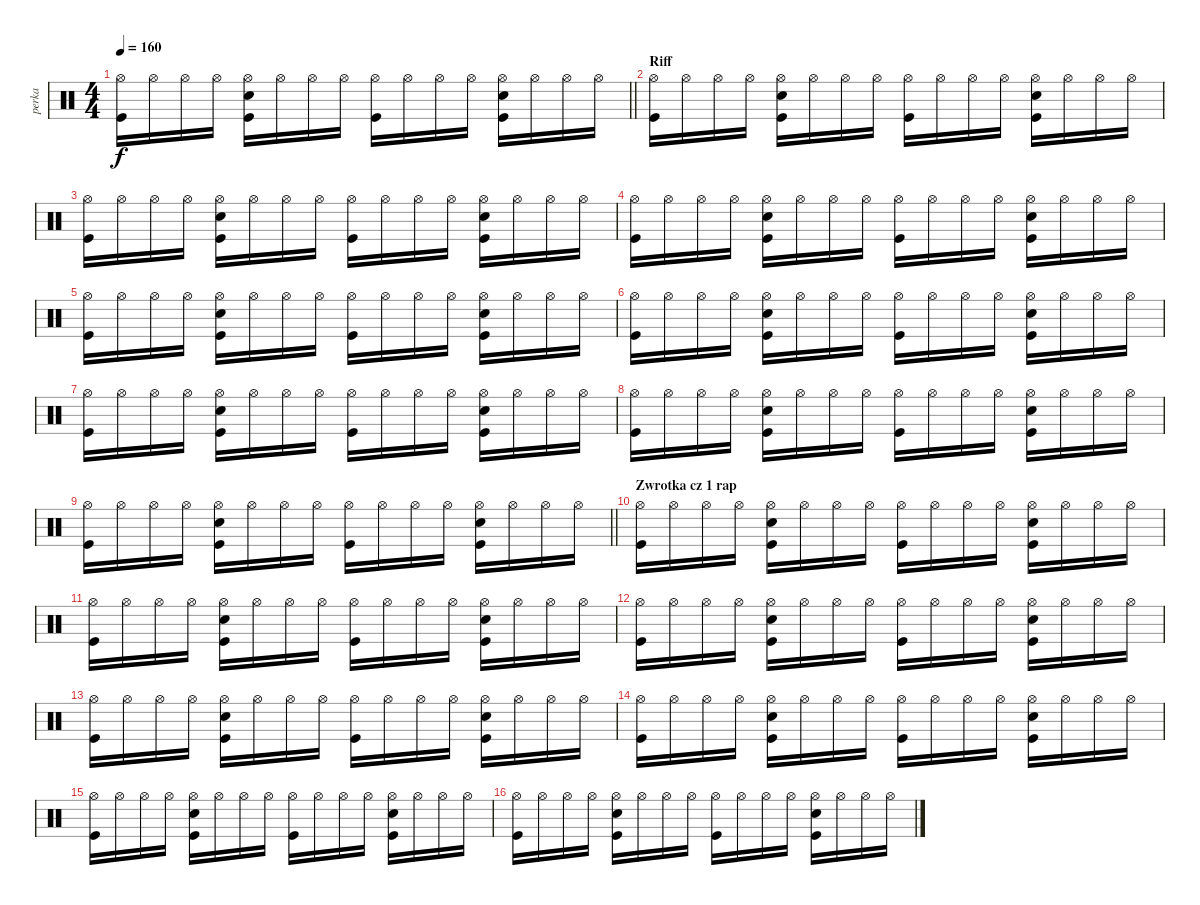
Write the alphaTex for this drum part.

\track ("perka" "perka") {instrument percussion}
\staff {score}
\articulation defaults
\ts (4 4)
\tempo 160
\clef neutral
\barLineRight lightlight
\ks c
("Hi-Hat (open)" "Kick (hit)").16{dy f} "Hi-Hat (open)".16 "Hi-Hat (open)".16 "Hi-Hat (open)".16 ("Hi-Hat (open)" "Snare (hit) 2" "Kick (hit)").16 "Hi-Hat (open)".16 "Hi-Hat (open)".16 "Hi-Hat (open)".16 ("Hi-Hat (open)" "Kick (hit)").16 "Hi-Hat (open)".16 "Hi-Hat (open)".16 "Hi-Hat (open)".16 ("Hi-Hat (open)" "Snare (hit) 2" "Kick (hit)").16 "Hi-Hat (open)".16 "Hi-Hat (open)".16 "Hi-Hat (open)".16 |
\section ("" "Riff")
("Hi-Hat (open)" "Kick (hit)").16 "Hi-Hat (open)".16 "Hi-Hat (open)".16 "Hi-Hat (open)".16 ("Hi-Hat (open)" "Snare (hit) 2" "Kick (hit)").16 "Hi-Hat (open)".16 "Hi-Hat (open)".16 "Hi-Hat (open)".16 ("Hi-Hat (open)" "Kick (hit)").16 "Hi-Hat (open)".16 "Hi-Hat (open)".16 "Hi-Hat (open)".16 ("Hi-Hat (open)" "Snare (hit) 2" "Kick (hit)").16 "Hi-Hat (open)".16 "Hi-Hat (open)".16 "Hi-Hat (open)".16 |
("Hi-Hat (open)" "Kick (hit)").16 "Hi-Hat (open)".16 "Hi-Hat (open)".16 "Hi-Hat (open)".16 ("Hi-Hat (open)" "Snare (hit) 2" "Kick (hit)").16 "Hi-Hat (open)".16 "Hi-Hat (open)".16 "Hi-Hat (open)".16 ("Hi-Hat (open)" "Kick (hit)").16 "Hi-Hat (open)".16 "Hi-Hat (open)".16 "Hi-Hat (open)".16 ("Hi-Hat (open)" "Snare (hit) 2" "Kick (hit)").16 "Hi-Hat (open)".16 "Hi-Hat (open)".16 "Hi-Hat (open)".16 |
("Hi-Hat (open)" "Kick (hit)").16 "Hi-Hat (open)".16 "Hi-Hat (open)".16 "Hi-Hat (open)".16 ("Hi-Hat (open)" "Snare (hit) 2" "Kick (hit)").16 "Hi-Hat (open)".16 "Hi-Hat (open)".16 "Hi-Hat (open)".16 ("Hi-Hat (open)" "Kick (hit)").16 "Hi-Hat (open)".16 "Hi-Hat (open)".16 "Hi-Hat (open)".16 ("Hi-Hat (open)" "Snare (hit) 2" "Kick (hit)").16 "Hi-Hat (open)".16 "Hi-Hat (open)".16 "Hi-Hat (open)".16 |
("Hi-Hat (open)" "Kick (hit)").16 "Hi-Hat (open)".16 "Hi-Hat (open)".16 "Hi-Hat (open)".16 ("Hi-Hat (open)" "Snare (hit) 2" "Kick (hit)").16 "Hi-Hat (open)".16 "Hi-Hat (open)".16 "Hi-Hat (open)".16 ("Hi-Hat (open)" "Kick (hit)").16 "Hi-Hat (open)".16 "Hi-Hat (open)".16 "Hi-Hat (open)".16 ("Hi-Hat (open)" "Snare (hit) 2" "Kick (hit)").16 "Hi-Hat (open)".16 "Hi-Hat (open)".16 "Hi-Hat (open)".16 |
("Hi-Hat (open)" "Kick (hit)").16 "Hi-Hat (open)".16 "Hi-Hat (open)".16 "Hi-Hat (open)".16 ("Hi-Hat (open)" "Snare (hit) 2" "Kick (hit)").16 "Hi-Hat (open)".16 "Hi-Hat (open)".16 "Hi-Hat (open)".16 ("Hi-Hat (open)" "Kick (hit)").16 "Hi-Hat (open)".16 "Hi-Hat (open)".16 "Hi-Hat (open)".16 ("Hi-Hat (open)" "Snare (hit) 2" "Kick (hit)").16 "Hi-Hat (open)".16 "Hi-Hat (open)".16 "Hi-Hat (open)".16 |
("Hi-Hat (open)" "Kick (hit)").16 "Hi-Hat (open)".16 "Hi-Hat (open)".16 "Hi-Hat (open)".16 ("Hi-Hat (open)" "Snare (hit) 2" "Kick (hit)").16 "Hi-Hat (open)".16 "Hi-Hat (open)".16 "Hi-Hat (open)".16 ("Hi-Hat (open)" "Kick (hit)").16 "Hi-Hat (open)".16 "Hi-Hat (open)".16 "Hi-Hat (open)".16 ("Hi-Hat (open)" "Snare (hit) 2" "Kick (hit)").16 "Hi-Hat (open)".16 "Hi-Hat (open)".16 "Hi-Hat (open)".16 |
("Hi-Hat (open)" "Kick (hit)").16 "Hi-Hat (open)".16 "Hi-Hat (open)".16 "Hi-Hat (open)".16 ("Hi-Hat (open)" "Snare (hit) 2" "Kick (hit)").16 "Hi-Hat (open)".16 "Hi-Hat (open)".16 "Hi-Hat (open)".16 ("Hi-Hat (open)" "Kick (hit)").16 "Hi-Hat (open)".16 "Hi-Hat (open)".16 "Hi-Hat (open)".16 ("Hi-Hat (open)" "Snare (hit) 2" "Kick (hit)").16 "Hi-Hat (open)".16 "Hi-Hat (open)".16 "Hi-Hat (open)".16 |
\barLineRight lightlight
("Hi-Hat (open)" "Kick (hit)").16 "Hi-Hat (open)".16 "Hi-Hat (open)".16 "Hi-Hat (open)".16 ("Hi-Hat (open)" "Snare (hit) 2" "Kick (hit)").16 "Hi-Hat (open)".16 "Hi-Hat (open)".16 "Hi-Hat (open)".16 ("Hi-Hat (open)" "Kick (hit)").16 "Hi-Hat (open)".16 "Hi-Hat (open)".16 "Hi-Hat (open)".16 ("Hi-Hat (open)" "Snare (hit) 2" "Kick (hit)").16 "Hi-Hat (open)".16 "Hi-Hat (open)".16 "Hi-Hat (open)".16 |
\section ("" "Zwrotka cz 1 rap")
("Hi-Hat (open)" "Kick (hit)").16 "Hi-Hat (open)".16 "Hi-Hat (open)".16 "Hi-Hat (open)".16 ("Hi-Hat (open)" "Snare (hit) 2" "Kick (hit)").16 "Hi-Hat (open)".16 "Hi-Hat (open)".16 "Hi-Hat (open)".16 ("Hi-Hat (open)" "Kick (hit)").16 "Hi-Hat (open)".16 "Hi-Hat (open)".16 "Hi-Hat (open)".16 ("Hi-Hat (open)" "Snare (hit) 2" "Kick (hit)").16 "Hi-Hat (open)".16 "Hi-Hat (open)".16 "Hi-Hat (open)".16 |
("Hi-Hat (open)" "Kick (hit)").16 "Hi-Hat (open)".16 "Hi-Hat (open)".16 "Hi-Hat (open)".16 ("Hi-Hat (open)" "Snare (hit) 2" "Kick (hit)").16 "Hi-Hat (open)".16 "Hi-Hat (open)".16 "Hi-Hat (open)".16 ("Hi-Hat (open)" "Kick (hit)").16 "Hi-Hat (open)".16 "Hi-Hat (open)".16 "Hi-Hat (open)".16 ("Hi-Hat (open)" "Snare (hit) 2" "Kick (hit)").16 "Hi-Hat (open)".16 "Hi-Hat (open)".16 "Hi-Hat (open)".16 |
("Hi-Hat (open)" "Kick (hit)").16 "Hi-Hat (open)".16 "Hi-Hat (open)".16 "Hi-Hat (open)".16 ("Hi-Hat (open)" "Snare (hit) 2" "Kick (hit)").16 "Hi-Hat (open)".16 "Hi-Hat (open)".16 "Hi-Hat (open)".16 ("Hi-Hat (open)" "Kick (hit)").16 "Hi-Hat (open)".16 "Hi-Hat (open)".16 "Hi-Hat (open)".16 ("Hi-Hat (open)" "Snare (hit) 2" "Kick (hit)").16 "Hi-Hat (open)".16 "Hi-Hat (open)".16 "Hi-Hat (open)".16 |
("Hi-Hat (open)" "Kick (hit)").16 "Hi-Hat (open)".16 "Hi-Hat (open)".16 "Hi-Hat (open)".16 ("Hi-Hat (open)" "Snare (hit) 2" "Kick (hit)").16 "Hi-Hat (open)".16 "Hi-Hat (open)".16 "Hi-Hat (open)".16 ("Hi-Hat (open)" "Kick (hit)").16 "Hi-Hat (open)".16 "Hi-Hat (open)".16 "Hi-Hat (open)".16 ("Hi-Hat (open)" "Snare (hit) 2" "Kick (hit)").16 "Hi-Hat (open)".16 "Hi-Hat (open)".16 "Hi-Hat (open)".16 |
("Hi-Hat (open)" "Kick (hit)").16 "Hi-Hat (open)".16 "Hi-Hat (open)".16 "Hi-Hat (open)".16 ("Hi-Hat (open)" "Snare (hit) 2" "Kick (hit)").16 "Hi-Hat (open)".16 "Hi-Hat (open)".16 "Hi-Hat (open)".16 ("Hi-Hat (open)" "Kick (hit)").16 "Hi-Hat (open)".16 "Hi-Hat (open)".16 "Hi-Hat (open)".16 ("Hi-Hat (open)" "Snare (hit) 2" "Kick (hit)").16 "Hi-Hat (open)".16 "Hi-Hat (open)".16 "Hi-Hat (open)".16 |
("Hi-Hat (open)" "Kick (hit)").16 "Hi-Hat (open)".16 "Hi-Hat (open)".16 "Hi-Hat (open)".16 ("Hi-Hat (open)" "Snare (hit) 2" "Kick (hit)").16 "Hi-Hat (open)".16 "Hi-Hat (open)".16 "Hi-Hat (open)".16 ("Hi-Hat (open)" "Kick (hit)").16 "Hi-Hat (open)".16 "Hi-Hat (open)".16 "Hi-Hat (open)".16 ("Hi-Hat (open)" "Snare (hit) 2" "Kick (hit)").16 "Hi-Hat (open)".16 "Hi-Hat (open)".16 "Hi-Hat (open)".16 |
("Hi-Hat (open)" "Kick (hit)").16 "Hi-Hat (open)".16 "Hi-Hat (open)".16 "Hi-Hat (open)".16 ("Hi-Hat (open)" "Snare (hit) 2" "Kick (hit)").16 "Hi-Hat (open)".16 "Hi-Hat (open)".16 "Hi-Hat (open)".16 ("Hi-Hat (open)" "Kick (hit)").16 "Hi-Hat (open)".16 "Hi-Hat (open)".16 "Hi-Hat (open)".16 ("Hi-Hat (open)" "Snare (hit) 2" "Kick (hit)").16 "Hi-Hat (open)".16 "Hi-Hat (open)".16 "Hi-Hat (open)".16
